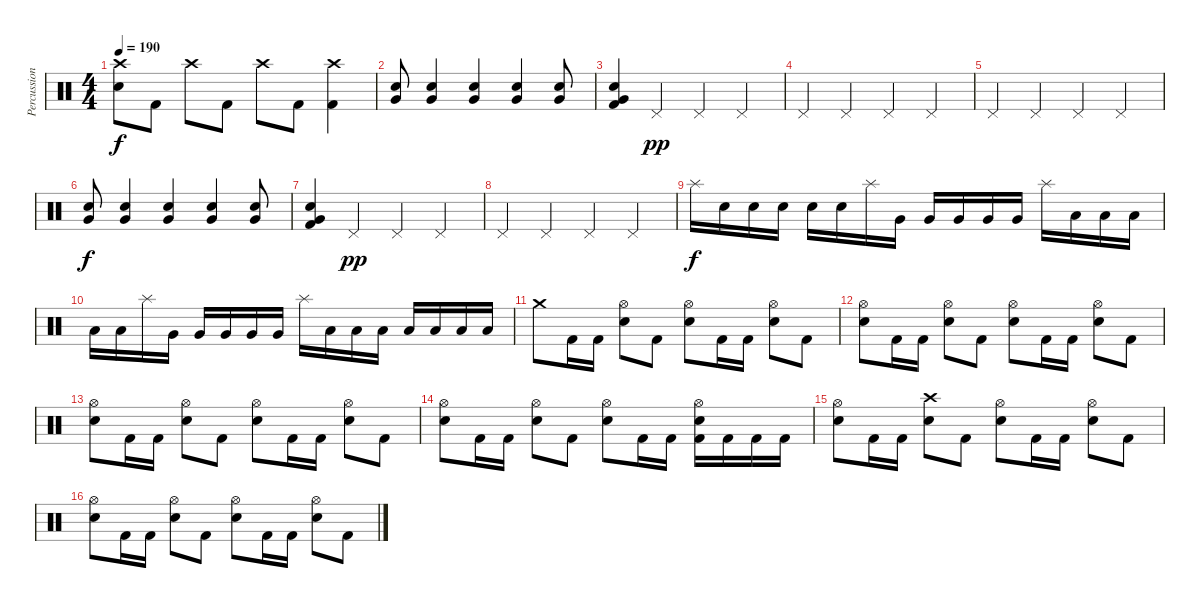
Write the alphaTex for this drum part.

\track ("Percussions" "Percussion") {instrument percussion}
\staff {score}
\articulation defaults
\ts (4 4)
\tempo 190
\clef neutral
\ks c
("Crash high (hit)" "Electric Snare (hit)").8{dy f} "Kick (hit) 2".8 "Crash high (hit)".8 "Kick (hit) 2".8 "Crash high (hit)".8 "Kick (hit) 2".8 ("Crash high (hit)" "Kick (hit) 2").4 |
("Electric Snare (hit)" "Very Low Tom (hit)").8 ("Electric Snare (hit)" "Very Low Tom (hit)").4 ("Electric Snare (hit)" "Very Low Tom (hit)").4 ("Electric Snare (hit)" "Very Low Tom (hit)").4 ("Electric Snare (hit)" "Very Low Tom (hit)").8 |
("Electric Snare (hit)" "Very Low Tom (hit)" "Kick (hit) 2").4 "Pedal Hi-Hat (hit)".4{dy pp} "Pedal Hi-Hat (hit)".4 "Pedal Hi-Hat (hit)".4 |
"Pedal Hi-Hat (hit)".4 "Pedal Hi-Hat (hit)".4 "Pedal Hi-Hat (hit)".4 "Pedal Hi-Hat (hit)".4 |
"Pedal Hi-Hat (hit)".4 "Pedal Hi-Hat (hit)".4 "Pedal Hi-Hat (hit)".4 "Pedal Hi-Hat (hit)".4 |
("Electric Snare (hit)" "Very Low Tom (hit)").8{dy f} ("Electric Snare (hit)" "Very Low Tom (hit)").4 ("Electric Snare (hit)" "Very Low Tom (hit)").4 ("Electric Snare (hit)" "Very Low Tom (hit)").4 ("Electric Snare (hit)" "Very Low Tom (hit)").8 |
("Electric Snare (hit)" "Very Low Tom (hit)" "Kick (hit) 2").4 "Pedal Hi-Hat (hit)".4{dy pp} "Pedal Hi-Hat (hit)".4 "Pedal Hi-Hat (hit)".4 |
"Pedal Hi-Hat (hit)".4 "Pedal Hi-Hat (hit)".4 "Pedal Hi-Hat (hit)".4 "Pedal Hi-Hat (hit)".4 |
"Splash (hit)".16{dy f} "Electric Snare (hit)".16 "Electric Snare (hit)".16 "Electric Snare (hit)".16 "Electric Snare (hit)".16 "Electric Snare (hit)".16 "Splash (hit)".16 "Very Low Tom (hit)".16 "Very Low Tom (hit)".16 "Very Low Tom (hit)".16 "Very Low Tom (hit)".16 "Very Low Tom (hit)".16 "Splash (hit)".16 "Low Tom (hit)".16 "Low Tom (hit)".16 "Low Tom (hit)".16 |
"Low Tom (hit)".16 "Low Tom (hit)".16 "Splash (hit)".16 "Very Low Tom (hit)".16 "Very Low Tom (hit)".16 "Very Low Tom (hit)".16 "Very Low Tom (hit)".16 "Very Low Tom (hit)".16 "Splash (hit)".16 "Low Floor Tom (hit)".16 "Low Floor Tom (hit)".16 "Low Floor Tom (hit)".16 "Low Floor Tom (hit)".16 "Low Floor Tom (hit)".16 "Low Floor Tom (hit)".16 "Low Floor Tom (hit)".16 |
"Crash medium (hit)".8 "Kick (hit) 2".16 "Kick (hit) 2".16 ("Hi-Hat (open)" "Electric Snare (hit)").8 "Kick (hit) 2".8 ("Hi-Hat (open)" "Electric Snare (hit)").8 "Kick (hit) 2".16 "Kick (hit) 2".16 ("Hi-Hat (open)" "Electric Snare (hit)").8 "Kick (hit) 2".8 |
("Hi-Hat (open)" "Electric Snare (hit)").8 "Kick (hit) 2".16 "Kick (hit) 2".16 ("Hi-Hat (open)" "Electric Snare (hit)").8 "Kick (hit) 2".8 ("Hi-Hat (open)" "Electric Snare (hit)").8 "Kick (hit) 2".16 "Kick (hit) 2".16 ("Hi-Hat (open)" "Electric Snare (hit)").8 "Kick (hit) 2".8 |
("Hi-Hat (open)" "Electric Snare (hit)").8 "Kick (hit) 2".16 "Kick (hit) 2".16 ("Hi-Hat (open)" "Electric Snare (hit)").8 "Kick (hit) 2".8 ("Hi-Hat (open)" "Electric Snare (hit)").8 "Kick (hit) 2".16 "Kick (hit) 2".16 ("Hi-Hat (open)" "Electric Snare (hit)").8 "Kick (hit) 2".8 |
("Hi-Hat (open)" "Electric Snare (hit)").8 "Kick (hit) 2".16 "Kick (hit) 2".16 ("Hi-Hat (open)" "Electric Snare (hit)").8 "Kick (hit) 2".8 ("Hi-Hat (open)" "Electric Snare (hit)").8 "Kick (hit) 2".16 "Kick (hit) 2".16 ("Hi-Hat (open)" "Electric Snare (hit)" "Kick (hit) 2").16 "Kick (hit) 2".16 "Kick (hit) 2".16 "Kick (hit) 2".16 |
("Hi-Hat (open)" "Electric Snare (hit)").8 "Kick (hit) 2".16 "Kick (hit) 2".16 ("Crash high (hit)" "Electric Snare (hit)").8 "Kick (hit) 2".8 ("Hi-Hat (open)" "Electric Snare (hit)").8 "Kick (hit) 2".16 "Kick (hit) 2".16 ("Hi-Hat (open)" "Electric Snare (hit)").8 "Kick (hit) 2".8 |
("Hi-Hat (open)" "Electric Snare (hit)").8 "Kick (hit) 2".16 "Kick (hit) 2".16 ("Hi-Hat (open)" "Electric Snare (hit)").8 "Kick (hit) 2".8 ("Hi-Hat (open)" "Electric Snare (hit)").8 "Kick (hit) 2".16 "Kick (hit) 2".16 ("Hi-Hat (open)" "Electric Snare (hit)").8 "Kick (hit) 2".8
